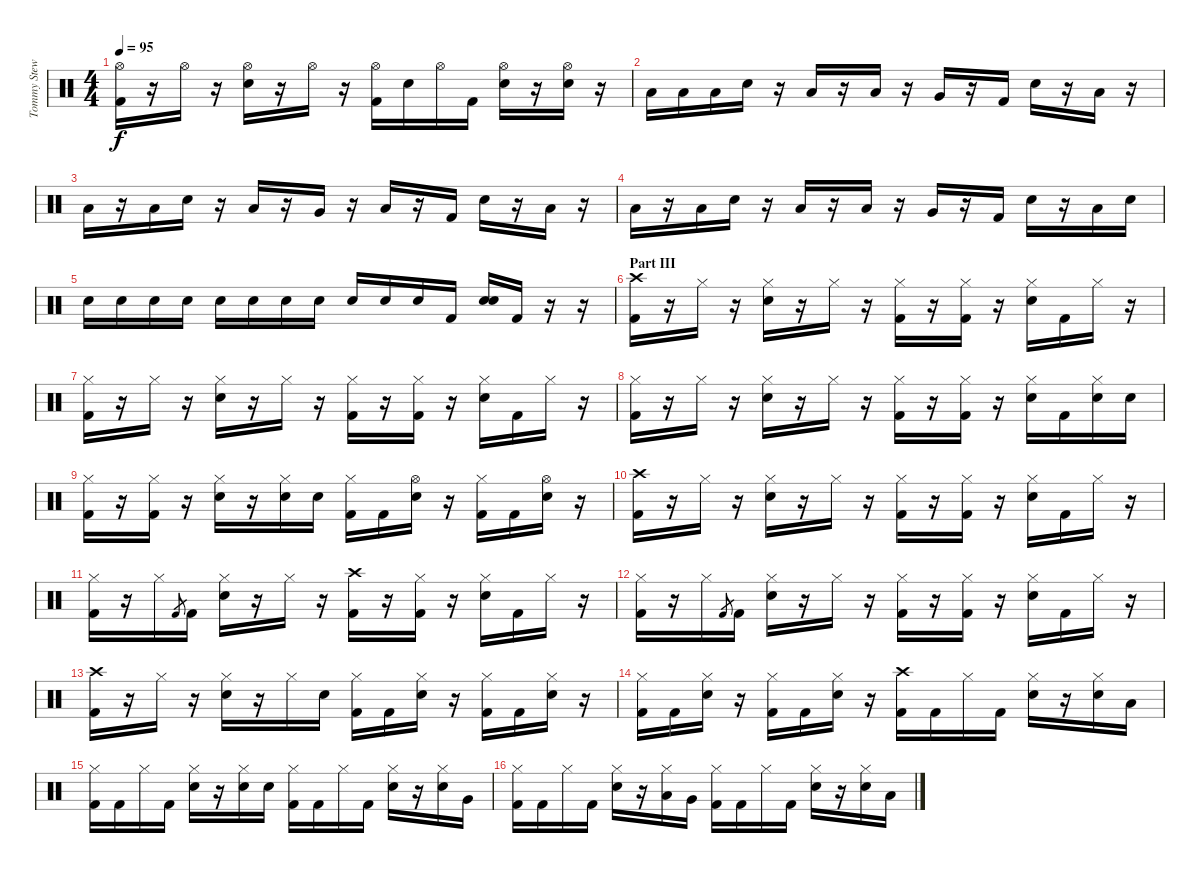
\track ("Tommy Stewart - Drums" "Tommy Stew") {instrument percussion}
\staff {score}
\articulation defaults
\ts (4 4)
\tempo 95
\clef neutral
\ks c
("Hi-Hat (open)" "Kick (hit) 2").16{dy f} r.16 "Hi-Hat (open)".16 r.16 ("Hi-Hat (open)" "Snare (hit) 2").16 r.16 "Hi-Hat (open)".16 r.16 ("Hi-Hat (open)" "Kick (hit) 2").16 "Snare (hit) 2".16 "Hi-Hat (open)".16 "Kick (hit) 2".16 ("Hi-Hat (open)" "Snare (hit) 2").16 r.16 ("Hi-Hat (open)" "Snare (hit) 2").16 r.16 |
"Low Tom (hit)".16 "Low Tom (hit)".16 "Low Tom (hit)".16 "Snare (hit) 2".16 r.16 "Low Tom (hit)".16 r.16 "Low Tom (hit)".16 r.16 "Very Low Tom (hit)".16 r.16 "Kick (hit) 2".16 "Snare (hit) 2".16 r.16 "Low Floor Tom (hit)".16 r.16 |
"Low Tom (hit)".16 r.16 "Low Tom (hit)".16 "Snare (hit) 2".16 r.16 "Low Tom (hit)".16 r.16 "Very Low Tom (hit)".16 r.16 "Low Tom (hit)".16 r.16 "Kick (hit) 2".16 "Snare (hit) 2".16 r.16 "Low Floor Tom (hit)".16 r.16 |
"Low Tom (hit)".16 r.16 "Low Tom (hit)".16 "Snare (hit) 2".16 r.16 "Low Tom (hit)".16 r.16 "Low Tom (hit)".16 r.16 "Very Low Tom (hit)".16 r.16 "Kick (hit) 2".16 "Snare (hit) 2".16 r.16 "Low Floor Tom (hit)".16 "Snare (hit) 2".16 |
"Snare (hit) 2".16 "Snare (hit) 2".16 "Snare (hit) 2".16 "Snare (hit) 2".16 "Snare (hit) 2".16 "Snare (hit) 2".16 "Snare (hit) 2".16 "Snare (hit) 2".16 "Snare (hit) 2".16 "Snare (hit) 2".16 "Snare (hit) 2".16 "Kick (hit) 2".16 ("Snare (hit) 2" "Snare (hit) 2").16 "Kick (hit) 2".16 r.16 r.16 |
\section ("" "Part III")
("Crash high (hit)" "Kick (hit) 2").16 r.16 "Hi-Hat (closed)".16 r.16 ("Hi-Hat (closed)" "Snare (hit) 2").16 r.16 "Hi-Hat (closed)".16 r.16 ("Hi-Hat (closed)" "Kick (hit) 2").16 r.16 ("Hi-Hat (closed)" "Kick (hit) 2").16 r.16 ("Hi-Hat (closed)" "Snare (hit) 2").16 "Kick (hit) 2".16 "Hi-Hat (closed)".16 r.16 |
("Hi-Hat (closed)" "Kick (hit) 2").16 r.16 "Hi-Hat (closed)".16 r.16 ("Hi-Hat (closed)" "Snare (hit) 2").16 r.16 "Hi-Hat (closed)".16 r.16 ("Hi-Hat (closed)" "Kick (hit) 2").16 r.16 ("Hi-Hat (closed)" "Kick (hit) 2").16 r.16 ("Hi-Hat (closed)" "Snare (hit) 2").16 "Kick (hit) 2".16 "Hi-Hat (closed)".16 r.16 |
("Hi-Hat (closed)" "Kick (hit) 2").16 r.16 "Hi-Hat (closed)".16 r.16 ("Hi-Hat (closed)" "Snare (hit) 2").16 r.16 "Hi-Hat (closed)".16 r.16 ("Hi-Hat (closed)" "Kick (hit) 2").16 r.16 ("Hi-Hat (closed)" "Kick (hit) 2").16 r.16 ("Hi-Hat (closed)" "Snare (hit) 2").16 "Kick (hit) 2".16 ("Hi-Hat (closed)" "Snare (hit) 2").16 "Snare (hit) 2".16 |
("Hi-Hat (closed)" "Kick (hit) 2").16 r.16 ("Hi-Hat (closed)" "Kick (hit) 2").16 r.16 ("Hi-Hat (closed)" "Snare (hit) 2").16 r.16 ("Hi-Hat (closed)" "Snare (hit) 2").16 "Snare (hit) 2".16 ("Hi-Hat (closed)" "Kick (hit) 2").16 "Kick (hit) 2".16 ("Hi-Hat (open)" "Snare (hit) 2").16 r.16 ("Hi-Hat (closed)" "Kick (hit) 2").16 "Kick (hit) 2".16 ("Hi-Hat (open)" "Snare (hit) 2").16 r.16 |
("Crash high (hit)" "Kick (hit) 2").16 r.16 "Hi-Hat (closed)".16 r.16 ("Hi-Hat (closed)" "Snare (hit) 2").16 r.16 "Hi-Hat (closed)".16 r.16 ("Hi-Hat (closed)" "Kick (hit) 2").16 r.16 ("Hi-Hat (closed)" "Kick (hit) 2").16 r.16 ("Hi-Hat (closed)" "Snare (hit) 2").16 "Kick (hit) 2".16 "Hi-Hat (closed)".16 r.16 |
("Hi-Hat (closed)" "Kick (hit) 2").16 r.16 "Hi-Hat (closed)".16 "Kick (hit) 2".8{gr} "Kick (hit) 2".16 ("Hi-Hat (closed)" "Snare (hit) 2").16 r.16 "Hi-Hat (closed)".16 r.16 ("Crash high (hit)" "Kick (hit) 2").16 r.16 ("Hi-Hat (closed)" "Kick (hit) 2").16 r.16 ("Hi-Hat (closed)" "Snare (hit) 2").16 "Kick (hit) 2".16 "Hi-Hat (closed)".16 r.16 |
("Hi-Hat (closed)" "Kick (hit) 2").16 r.16 "Hi-Hat (closed)".16 "Kick (hit) 2".8{gr} "Kick (hit) 2".16 ("Hi-Hat (closed)" "Snare (hit) 2").16 r.16 "Hi-Hat (closed)".16 r.16 ("Hi-Hat (closed)" "Kick (hit) 2").16 r.16 ("Hi-Hat (closed)" "Kick (hit) 2").16 r.16 ("Hi-Hat (closed)" "Snare (hit) 2").16 "Kick (hit) 2".16 "Hi-Hat (closed)".16 r.16 |
("Crash high (hit)" "Kick (hit) 2").16 r.16 "Hi-Hat (closed)".16 r.16 ("Hi-Hat (closed)" "Snare (hit) 2").16 r.16 "Hi-Hat (closed)".16 "Snare (hit) 2".16 ("Hi-Hat (closed)" "Kick (hit) 2").16 "Kick (hit) 2".16 ("Hi-Hat (closed)" "Snare (hit) 2").16 r.16 ("Hi-Hat (closed)" "Kick (hit) 2").16 "Kick (hit) 2".16 ("Hi-Hat (closed)" "Snare (hit) 2").16 r.16 |
("Hi-Hat (closed)" "Kick (hit) 2").16 "Kick (hit) 2".16 ("Hi-Hat (closed)" "Snare (hit) 2").16 r.16 ("Hi-Hat (closed)" "Kick (hit) 2").16 "Kick (hit) 2".16 ("Hi-Hat (closed)" "Snare (hit) 2").16 r.16 ("Crash high (hit)" "Kick (hit) 2").16 "Kick (hit) 2".16 "Hi-Hat (closed)".16 "Kick (hit) 2".16 ("Hi-Hat (closed)" "Snare (hit) 2").16 r.16 ("Hi-Hat (closed)" "Snare (hit) 2").16 "Low Tom (hit)".16 |
("Hi-Hat (closed)" "Kick (hit) 2").16 "Kick (hit) 2".16 "Hi-Hat (closed)".16 "Kick (hit) 2".16 ("Hi-Hat (closed)" "Snare (hit) 2").16 r.16 ("Hi-Hat (closed)" "Snare (hit) 2").16 "Snare (hit) 2".16 ("Hi-Hat (closed)" "Kick (hit) 2").16 "Kick (hit) 2".16 "Hi-Hat (closed)".16 "Kick (hit) 2".16 ("Hi-Hat (closed)" "Snare (hit) 2").16 r.16 ("Hi-Hat (closed)" "Snare (hit) 2").16 "Very Low Tom (hit)".16 |
("Hi-Hat (closed)" "Kick (hit) 2").16 "Kick (hit) 2".16 "Hi-Hat (closed)".16 "Kick (hit) 2".16 ("Hi-Hat (closed)" "Snare (hit) 2").16 r.16 ("Hi-Hat (closed)" "Low Tom (hit)").16 "Very Low Tom (hit)".16 ("Hi-Hat (closed)" "Kick (hit) 2").16 "Kick (hit) 2".16 "Hi-Hat (closed)".16 "Kick (hit) 2".16 ("Hi-Hat (closed)" "Snare (hit) 2").16 r.16 ("Hi-Hat (closed)" "Snare (hit) 2").16 "Low Tom (hit)".16
